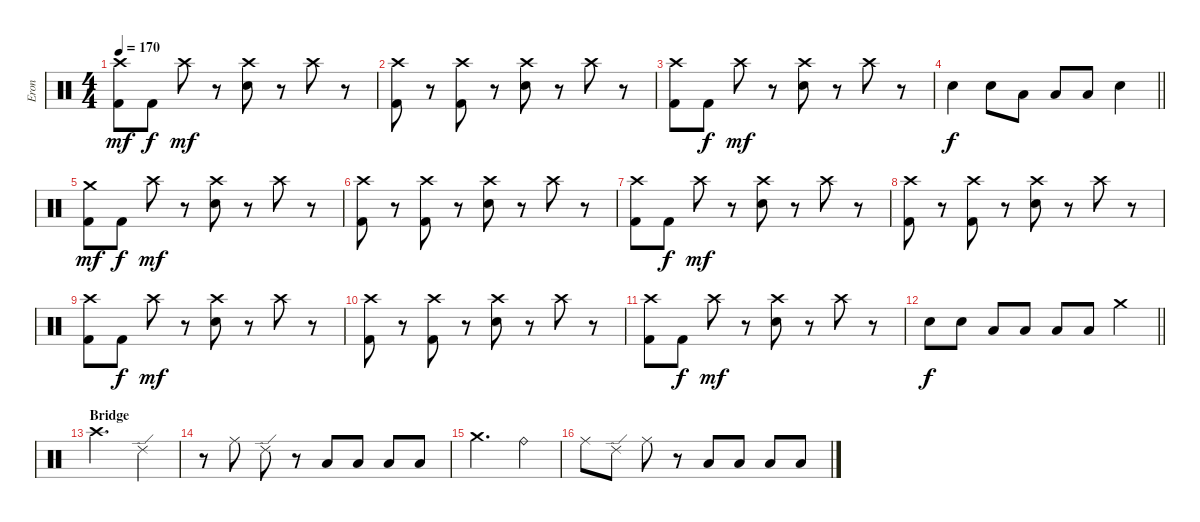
\track ("Eron" "Eron") {instrument percussion}
\staff {score}
\articulation defaults
\ts (4 4)
\tempo 170
\clef neutral
\ks c
("Crash high (hit)" "Kick (hit) 2").8{dy mf} "Kick (hit) 2".8{dy f} "Crash high (hit)".8{dy mf} r.8 ("Crash high (hit)" "Snare (hit) 2").8 r.8 "Crash high (hit)".8 r.8 |
("Crash high (hit)" "Kick (hit) 2").8 r.8 ("Crash high (hit)" "Kick (hit) 2").8 r.8 ("Crash high (hit)" "Snare (hit) 2").8 r.8 "Crash high (hit)".8 r.8 |
("Crash high (hit)" "Kick (hit) 2").8 "Kick (hit) 2".8{dy f} "Crash high (hit)".8{dy mf} r.8 ("Crash high (hit)" "Snare (hit) 2").8 r.8 "Crash high (hit)".8 r.8 |
\barLineRight lightlight "Snare (hit) 2".4{dy f} "Snare (hit) 2".8 "Low Tom (hit)".8 "Low Tom (hit)".8 "Low Floor Tom (hit)".8 "Snare (hit) 2".4
|
("Crash medium (hit)" "Kick (hit) 2").8{dy mf} "Kick (hit) 2".8{dy f} "Crash high (hit)".8{dy mf} r.8 ("Crash high (hit)" "Snare (hit) 2").8 r.8 "Crash high (hit)".8 r.8 |
("Crash high (hit)" "Kick (hit) 2").8 r.8 ("Crash high (hit)" "Kick (hit) 2").8 r.8 ("Crash high (hit)" "Snare (hit) 2").8 r.8 "Crash high (hit)".8 r.8 |
("Crash high (hit)" "Kick (hit) 2").8 "Kick (hit) 2".8{dy f} "Crash high (hit)".8{dy mf} r.8 ("Crash high (hit)" "Snare (hit) 2").8 r.8 "Crash high (hit)".8 r.8 |
("Crash high (hit)" "Kick (hit) 2").8 r.8 ("Crash high (hit)" "Kick (hit) 2").8 r.8 ("Crash high (hit)" "Snare (hit) 2").8 r.8 "Crash high (hit)".8 r.8 |
("Crash high (hit)" "Kick (hit) 2").8 "Kick (hit) 2".8{dy f} "Crash high (hit)".8{dy mf} r.8 ("Crash high (hit)" "Snare (hit) 2").8 r.8 "Crash high (hit)".8 r.8 |
("Crash high (hit)" "Kick (hit) 2").8 r.8 ("Crash high (hit)" "Kick (hit) 2").8 r.8 ("Crash high (hit)" "Snare (hit) 2").8 r.8 "Crash high (hit)".8 r.8 |
("Crash high (hit)" "Kick (hit) 2").8 "Kick (hit) 2".8{dy f} "Crash high (hit)".8{dy mf} r.8 ("Crash high (hit)" "Snare (hit) 2").8 r.8 "Crash high (hit)".8 r.8 |
\barLineRight lightlight "Snare (hit) 2".8{dy f} "Snare (hit) 2".8 "Low Tom (hit)".8 "Low Tom (hit)".8 "Low Floor Tom (hit)".8 "Low Floor Tom (hit)".8 "Crash medium (hit)".4
|
\section ("" "Bridge")
"Crash high (hit)".2{d} "Ride (edge) 2".4 |
r.8 "Ride (middle)".8 "Ride (edge) 2".8 r.8 "Low Tom (hit)".8 "Low Tom (hit)".8 "Low Floor Tom (hit)".8 "Low Floor Tom (hit)".8 |
"Crash medium (hit)".2{d} "Ride (bell)".4 |
"Ride (middle)".8 "Ride (edge) 2".8 "Ride (middle)".8 r.8 "Low Tom (hit)".8 "Low Tom (hit)".8 "Low Floor Tom (hit)".8 "Low Floor Tom (hit)".8
